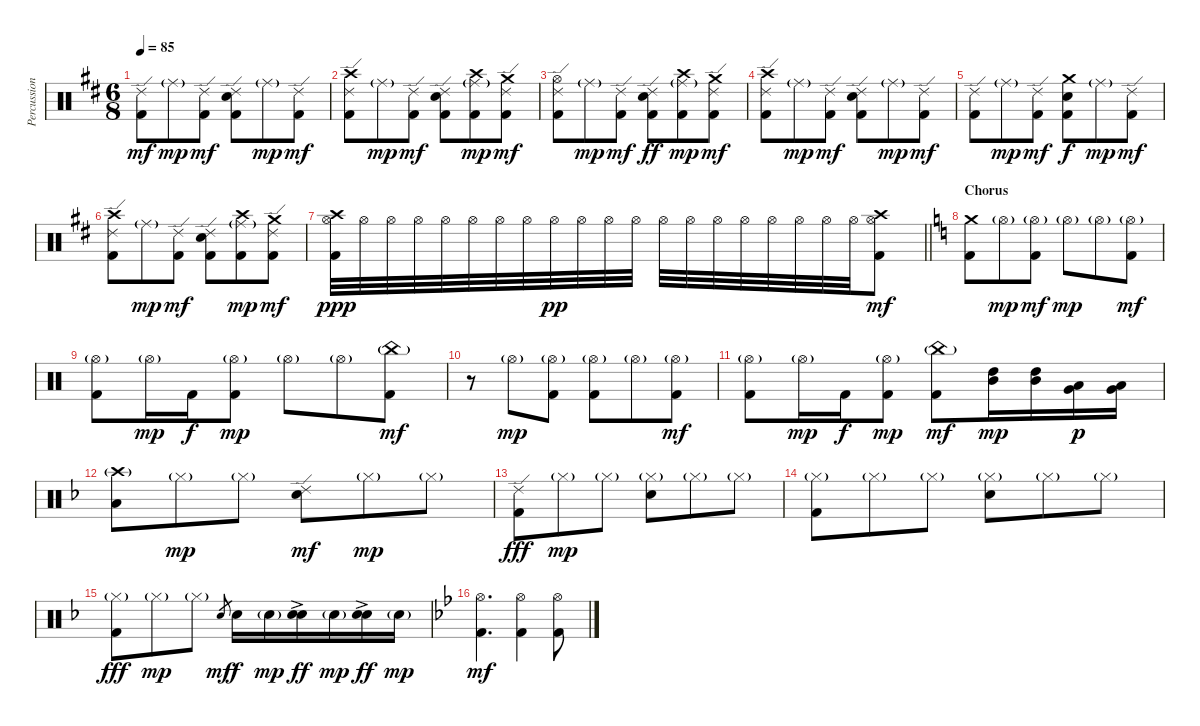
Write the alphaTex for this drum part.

\track ("Percussion (Daniele Carbonera)" "Percussion") {instrument percussion}
\staff {score}
\articulation defaults
\ts (6 8)
\tempo 85
\clef neutral
\ks bminor
("Ride (edge) 2" "Kick (hit) 2").8{dy mf} "Ride (middle)"{g}.8{dy mp} ("Ride (edge) 2" "Kick (hit) 2").8{dy mf} ("Ride (edge) 2" "Electric Snare (hit)" "Kick (hit) 2").8 "Ride (middle)"{g}.8{dy mp} ("Ride (edge) 2" "Kick (hit) 2").8{dy mf} |
("Crash high (hit)" "Ride (edge) 2" "Kick (hit) 2").8 "Ride (middle)"{g}.8{dy mp} ("Ride (edge) 2" "Kick (hit) 2").8{dy mf} ("Ride (edge) 2" "Electric Snare (hit)" "Kick (hit) 2").8 ("Crash high (hit)" "Ride (middle)"{g} "Kick (hit) 2").8{dy mp} ("Crash medium (hit)" "Ride (edge) 2" "Kick (hit) 2").8{dy mf} |
("Hi-Hat (open)" "Ride (edge) 2" "Kick (hit) 2").8 "Ride (middle)"{g}.8{dy mp} ("Ride (edge) 2" "Kick (hit) 2").8{dy mf} ("Ride (edge) 2" "Electric Snare (hit)" "Kick (hit) 2").8{dy ff} ("Crash high (hit)" "Ride (middle)"{g} "Kick (hit) 2").8{dy mp} ("Crash medium (hit)" "Ride (edge) 2" "Kick (hit) 2").8{dy mf} |
("Crash high (hit)" "Ride (edge) 2" "Kick (hit) 2").8 "Ride (middle)"{g}.8{dy mp} ("Ride (edge) 2" "Kick (hit) 2").8{dy mf} ("Ride (edge) 2" "Electric Snare (hit)" "Kick (hit) 2").8 "Ride (middle)"{g}.8{dy mp} ("Ride (edge) 2" "Kick (hit) 2").8{dy mf} |
("Ride (edge) 2" "Kick (hit) 2").8 "Ride (middle)"{g}.8{dy mp} ("Ride (edge) 2" "Kick (hit) 2").8{dy mf} ("Crash medium (hit)" "Electric Snare (hit)" "Kick (hit) 2").8{dy f} "Ride (middle)"{g}.8{dy mp} ("Ride (edge) 2" "Kick (hit) 2").8{dy mf} |
("Crash high (hit)" "Ride (edge) 2" "Kick (hit) 2").8 "Ride (middle)"{g}.8{dy mp} ("Ride (edge) 2" "Kick (hit) 2").8{dy mf} ("Ride (edge) 2" "Electric Snare (hit)" "Kick (hit) 2").8 ("Crash high (hit)" "Ride (middle)"{g} "Kick (hit) 2").8{dy mp} ("Crash medium (hit)" "Ride (edge) 2" "Kick (hit) 2").8{dy mf} |
\barLineRight lightlight
("Crash high (hit)" "Hi-Hat (open)" "Kick (hit) 2").32{dy ppp} "Hi-Hat (open)".32 "Hi-Hat (open)".32 "Hi-Hat (open)".32 "Hi-Hat (open)".32 "Hi-Hat (open)".32 "Hi-Hat (open)".32 "Hi-Hat (open)".32 "Hi-Hat (open)".32{dy pp} "Hi-Hat (open)".32 "Hi-Hat (open)".32 "Hi-Hat (open)".32 "Hi-Hat (open)".32 "Hi-Hat (open)".32 "Hi-Hat (open)".32 "Hi-Hat (open)".32 "Hi-Hat (open)".32 "Hi-Hat (open)".32 "Hi-Hat (open)".32 "Hi-Hat (open)".32 ("Crash high (hit)" "Hi-Hat (open)" "Kick (hit) 2").8{dy mf} |
\section ("" "Chorus")
\ks aminor
("Crash medium (hit)" "Kick (hit) 2").8 "Hi-Hat (open)"{g}.8{dy mp} ("Hi-Hat (open)"{g} "Kick (hit) 2").8{dy mf} "Hi-Hat (open)"{g}.8{dy mp} "Hi-Hat (open)"{g}.8 ("Hi-Hat (open)"{g} "Kick (hit) 2").8{dy mf} |
("Hi-Hat (open)"{g} "Kick (hit) 2").8 "Hi-Hat (open)"{g}.16{dy mp} "Kick (hit) 2".16{dy f} ("Hi-Hat (open)"{g} "Kick (hit) 2").8{dy mp} "Hi-Hat (open)"{g}.8 "Hi-Hat (open)"{g}.8 ("China (hit)"{g} "Kick (hit) 2").8{dy mf} |
r.8 "Hi-Hat (open)"{g}.8{dy mp} ("Hi-Hat (open)"{g} "Kick (hit) 2").8 ("Hi-Hat (open)"{g} "Kick (hit) 2").8 "Hi-Hat (open)"{g}.8 ("Hi-Hat (open)"{g} "Kick (hit) 2").8{dy mf} |
("Hi-Hat (open)"{g} "Kick (hit) 2").8 "Hi-Hat (open)"{g}.16{dy mp} "Kick (hit) 2".16{dy f} ("Hi-Hat (open)"{g} "Kick (hit) 2").8{dy mp} ("China (hit)"{g} "Kick (hit) 2").8{dy mf} ("High Tom (hit)" "Mid Tom (hit)").16{dy mp} ("High Tom (hit)" "Mid Tom (hit)").16 ("Low Tom (hit)" "Very Low Tom (hit)").16{dy p} ("Low Tom (hit)" "Very Low Tom (hit)").16 |
\ks dminor
("Crash high (hit)"{g} "Low Floor Tom (hit)").8 "Hi-Hat (closed)"{g}.8{dy mp} "Hi-Hat (closed)"{g}.8 ("Ride (edge) 2" "Electric Snare (hit)").8{dy mf} "Hi-Hat (closed)"{g}.8{dy mp} "Hi-Hat (closed)"{g}.8 |
("Ride (edge) 2" "Kick (hit) 2").8{dy fff} "Hi-Hat (closed)"{g}.8{dy mp} "Hi-Hat (closed)"{g}.8 ("Hi-Hat (closed)"{g} "Electric Snare (hit)").8 "Hi-Hat (closed)"{g}.8 "Hi-Hat (closed)"{g}.8 |
("Hi-Hat (closed)"{g} "Kick (hit) 2").8 "Hi-Hat (closed)"{g}.8 "Hi-Hat (closed)"{g}.8 ("Hi-Hat (closed)"{g} "Electric Snare (hit)").8 "Hi-Hat (closed)"{g}.8 "Hi-Hat (closed)"{g}.8 |
("Hi-Hat (closed)"{g} "Kick (hit) 2").8{dy fff} "Hi-Hat (closed)"{g}.8{dy mp} "Hi-Hat (closed)"{g}.8 "Electric Snare (hit)".8{gr dy mf} "Electric Snare (hit)".16{dy f} "Electric Snare (hit)"{g}.16{dy mp} ("Electric Snare (hit)" "Electric Snare (hit)"{ac}).16{dy ff} "Electric Snare (hit)"{g}.16{dy mp} ("Electric Snare (hit)" "Electric Snare (hit)"{ac}).16{dy ff} "Electric Snare (hit)"{g}.16{dy mp} |
\ks gminor
("Hi-Hat (open)" "Kick (hit) 2").4{d dy mf} ("Hi-Hat (open)" "Kick (hit) 2").4 ("Hi-Hat (open)" "Kick (hit) 2").8
